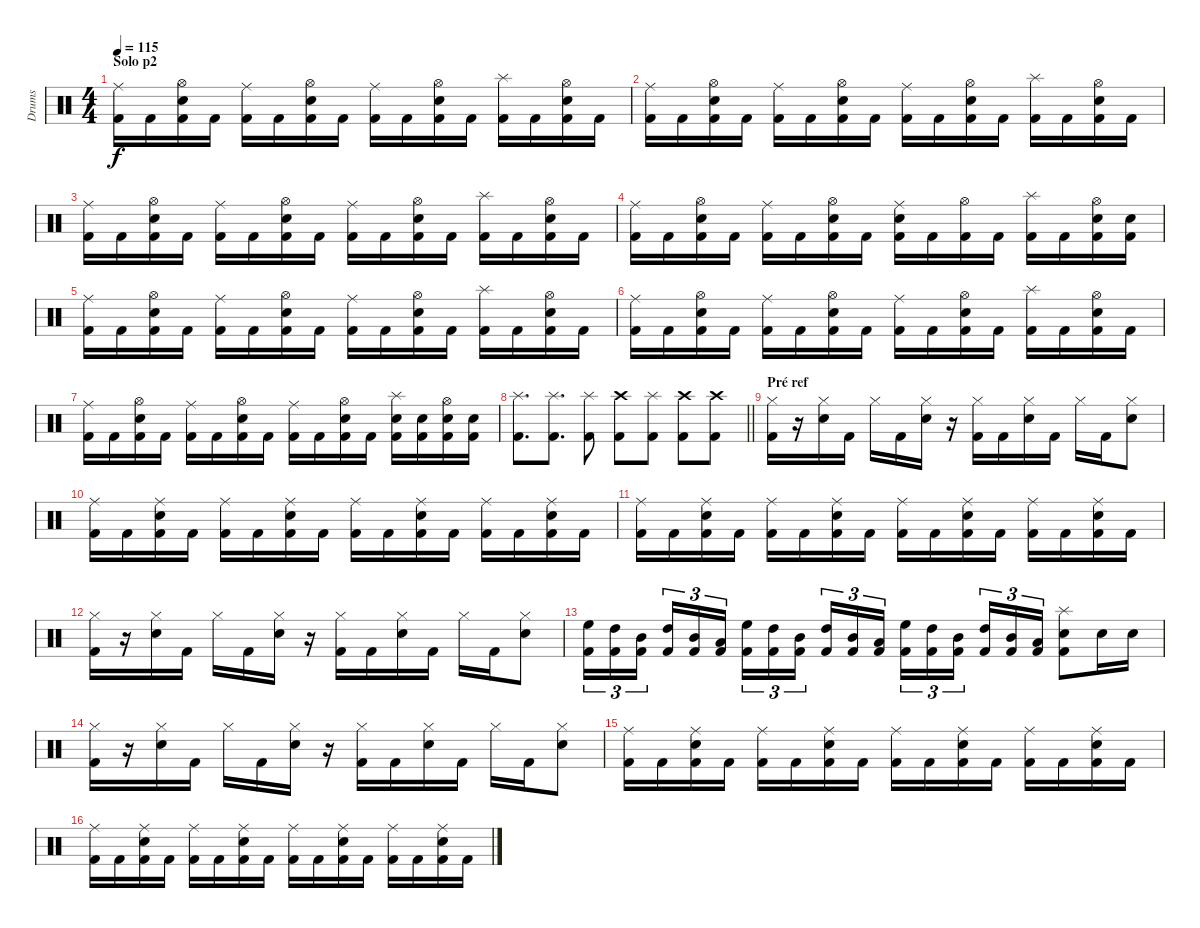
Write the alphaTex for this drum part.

\track ("Drums" "Drums") {instrument percussion}
\staff {score}
\articulation defaults
\ts (4 4)
\section ("" "Solo p2")
\tempo 115
\clef neutral
\ks c
("Ride (middle)" "Kick (hit) 2").16{dy f} "Kick (hit) 2".16 ("Hi-Hat (open)" "Electric Snare (hit)" "Kick (hit) 2").16 "Kick (hit) 2".16 ("Ride (middle)" "Kick (hit) 2").16 "Kick (hit) 2".16 ("Hi-Hat (open)" "Electric Snare (hit)" "Kick (hit) 2").16 "Kick (hit) 2".16 ("Ride (middle)" "Kick (hit) 2").16 "Kick (hit) 2".16 ("Hi-Hat (open)" "Electric Snare (hit)" "Kick (hit) 2").16 "Kick (hit) 2".16 ("Splash (hit)" "Kick (hit) 2").16 "Kick (hit) 2".16 ("Hi-Hat (open)" "Electric Snare (hit)" "Kick (hit) 2").16 "Kick (hit) 2".16 |
("Ride (middle)" "Kick (hit) 2").16 "Kick (hit) 2".16 ("Hi-Hat (open)" "Electric Snare (hit)" "Kick (hit) 2").16 "Kick (hit) 2".16 ("Ride (middle)" "Kick (hit) 2").16 "Kick (hit) 2".16 ("Hi-Hat (open)" "Electric Snare (hit)" "Kick (hit) 2").16 "Kick (hit) 2".16 ("Ride (middle)" "Kick (hit) 2").16 "Kick (hit) 2".16 ("Hi-Hat (open)" "Electric Snare (hit)" "Kick (hit) 2").16 "Kick (hit) 2".16 ("Splash (hit)" "Kick (hit) 2").16 "Kick (hit) 2".16 ("Hi-Hat (open)" "Electric Snare (hit)" "Kick (hit) 2").16 "Kick (hit) 2".16 |
("Ride (middle)" "Kick (hit) 2").16 "Kick (hit) 2".16 ("Hi-Hat (open)" "Electric Snare (hit)" "Kick (hit) 2").16 "Kick (hit) 2".16 ("Ride (middle)" "Kick (hit) 2").16 "Kick (hit) 2".16 ("Hi-Hat (open)" "Electric Snare (hit)" "Kick (hit) 2").16 "Kick (hit) 2".16 ("Ride (middle)" "Kick (hit) 2").16 "Kick (hit) 2".16 ("Hi-Hat (open)" "Electric Snare (hit)" "Kick (hit) 2").16 "Kick (hit) 2".16 ("Splash (hit)" "Kick (hit) 2").16 "Kick (hit) 2".16 ("Hi-Hat (open)" "Electric Snare (hit)" "Kick (hit) 2").16 "Kick (hit) 2".16 |
("Ride (middle)" "Kick (hit) 2").16 "Kick (hit) 2".16 ("Hi-Hat (open)" "Electric Snare (hit)" "Kick (hit) 2").16 "Kick (hit) 2".16 ("Ride (middle)" "Kick (hit) 2").16 "Kick (hit) 2".16 ("Hi-Hat (open)" "Electric Snare (hit)" "Kick (hit) 2").16 "Kick (hit) 2".16 ("Ride (middle)" "Electric Snare (hit)" "Kick (hit) 2").16 "Kick (hit) 2".16 ("Hi-Hat (open)" "Kick (hit) 2").16 "Kick (hit) 2".16 ("Splash (hit)" "Kick (hit) 2").16 "Kick (hit) 2".16 ("Hi-Hat (open)" "Electric Snare (hit)" "Kick (hit) 2").16 ("Electric Snare (hit)" "Kick (hit) 2").16 |
("Ride (middle)" "Kick (hit) 2").16 "Kick (hit) 2".16 ("Hi-Hat (open)" "Electric Snare (hit)" "Kick (hit) 2").16 "Kick (hit) 2".16 ("Ride (middle)" "Kick (hit) 2").16 "Kick (hit) 2".16 ("Hi-Hat (open)" "Electric Snare (hit)" "Kick (hit) 2").16 "Kick (hit) 2".16 ("Ride (middle)" "Kick (hit) 2").16 "Kick (hit) 2".16 ("Hi-Hat (open)" "Electric Snare (hit)" "Kick (hit) 2").16 "Kick (hit) 2".16 ("Splash (hit)" "Kick (hit) 2").16 "Kick (hit) 2".16 ("Hi-Hat (open)" "Electric Snare (hit)" "Kick (hit) 2").16 "Kick (hit) 2".16 |
("Ride (middle)" "Kick (hit) 2").16 "Kick (hit) 2".16 ("Hi-Hat (open)" "Electric Snare (hit)" "Kick (hit) 2").16 "Kick (hit) 2".16 ("Ride (middle)" "Kick (hit) 2").16 "Kick (hit) 2".16 ("Hi-Hat (open)" "Electric Snare (hit)" "Kick (hit) 2").16 "Kick (hit) 2".16 ("Ride (middle)" "Kick (hit) 2").16 "Kick (hit) 2".16 ("Hi-Hat (open)" "Electric Snare (hit)" "Kick (hit) 2").16 "Kick (hit) 2".16 ("Splash (hit)" "Kick (hit) 2").16 "Kick (hit) 2".16 ("Hi-Hat (open)" "Electric Snare (hit)" "Kick (hit) 2").16 "Kick (hit) 2".16 |
("Ride (middle)" "Kick (hit) 2").16 "Kick (hit) 2".16 ("Hi-Hat (open)" "Electric Snare (hit)" "Kick (hit) 2").16 "Kick (hit) 2".16 ("Ride (middle)" "Kick (hit) 2").16 "Kick (hit) 2".16 ("Hi-Hat (open)" "Electric Snare (hit)" "Kick (hit) 2").16 "Kick (hit) 2".16 ("Ride (middle)" "Kick (hit) 2").16 "Kick (hit) 2".16 ("Hi-Hat (open)" "Electric Snare (hit)" "Kick (hit) 2").16 "Kick (hit) 2".16 ("Splash (hit)" "Electric Snare (hit)" "Kick (hit) 2").16 ("Electric Snare (hit)" "Kick (hit) 2").16 ("Hi-Hat (open)" "Electric Snare (hit)" "Kick (hit) 2").16 ("Electric Snare (hit)" "Kick (hit) 2").16 |
\barLineRight lightlight
("Splash (hit)" "Kick (hit) 2").8{d} ("Splash (hit)" "Kick (hit) 2").8{d} ("Splash (hit)" "Kick (hit) 2").8 ("Crash high (hit)" "Kick (hit) 2").8 ("Splash (hit)" "Kick (hit) 2").8 ("Crash high (hit)" "Kick (hit) 2").8 ("Crash high (hit)" "Kick (hit) 2").8 |
\section ("" "Pré ref")
("Hi-Hat (closed)" "Kick (hit) 2").16 r.16 ("Hi-Hat (closed)" "Electric Snare (hit)").16 "Kick (hit) 2".16 "Hi-Hat (closed)".16 "Kick (hit) 2".16 ("Hi-Hat (closed)" "Electric Snare (hit)").16 r.16 ("Hi-Hat (closed)" "Kick (hit) 2").16 "Kick (hit) 2".16 ("Hi-Hat (closed)" "Electric Snare (hit)").16 "Kick (hit) 2".16 "Hi-Hat (closed)".16 "Kick (hit) 2".16 ("Hi-Hat (closed)" "Electric Snare (hit)").8 |
("Ride (middle)" "Kick (hit) 2").16 "Kick (hit) 2".16 ("Ride (middle)" "Electric Snare (hit)" "Kick (hit) 2").16 "Kick (hit) 2".16 ("Ride (middle)" "Kick (hit) 2").16 "Kick (hit) 2".16 ("Ride (middle)" "Electric Snare (hit)" "Kick (hit) 2").16 "Kick (hit) 2".16 ("Ride (middle)" "Kick (hit) 2").16 "Kick (hit) 2".16 ("Ride (middle)" "Electric Snare (hit)" "Kick (hit) 2").16 "Kick (hit) 2".16 ("Ride (middle)" "Kick (hit) 2").16 "Kick (hit) 2".16 ("Ride (middle)" "Electric Snare (hit)" "Kick (hit) 2").16 "Kick (hit) 2".16 |
("Ride (middle)" "Kick (hit) 2").16 "Kick (hit) 2".16 ("Ride (middle)" "Electric Snare (hit)" "Kick (hit) 2").16 "Kick (hit) 2".16 ("Ride (middle)" "Kick (hit) 2").16 "Kick (hit) 2".16 ("Ride (middle)" "Electric Snare (hit)" "Kick (hit) 2").16 "Kick (hit) 2".16 ("Ride (middle)" "Kick (hit) 2").16 "Kick (hit) 2".16 ("Ride (middle)" "Electric Snare (hit)" "Kick (hit) 2").16 "Kick (hit) 2".16 ("Ride (middle)" "Kick (hit) 2").16 "Kick (hit) 2".16 ("Ride (middle)" "Electric Snare (hit)" "Kick (hit) 2").16 "Kick (hit) 2".16 |
("Hi-Hat (closed)" "Kick (hit) 2").16 r.16 ("Hi-Hat (closed)" "Electric Snare (hit)").16 "Kick (hit) 2".16 "Hi-Hat (closed)".16 "Kick (hit) 2".16 ("Hi-Hat (closed)" "Electric Snare (hit)").16 r.16 ("Hi-Hat (closed)" "Kick (hit) 2").16 "Kick (hit) 2".16 ("Hi-Hat (closed)" "Electric Snare (hit)").16 "Kick (hit) 2".16 "Hi-Hat (closed)".16 "Kick (hit) 2".16 ("Hi-Hat (closed)" "Electric Snare (hit)").8 |
("High Floor Tom (hit)" "Kick (hit) 2").16{tu (3 2)} ("High Tom (hit)" "Kick (hit) 2").16{tu (3 2)} ("Mid Tom (hit)" "Kick (hit) 2").16{tu (3 2) beam splitsecondary} ("High Tom (hit)" "Kick (hit) 2").16{tu (3 2)} ("Mid Tom (hit)" "Kick (hit) 2").16{tu (3 2)} ("Low Tom (hit)" "Kick (hit) 2").16{tu (3 2)} ("High Floor Tom (hit)" "Kick (hit) 2").16{tu (3 2)} ("High Tom (hit)" "Kick (hit) 2").16{tu (3 2)} ("Mid Tom (hit)" "Kick (hit) 2").16{tu (3 2) beam splitsecondary} ("High Tom (hit)" "Kick (hit) 2").16{tu (3 2)} ("Mid Tom (hit)" "Kick (hit) 2").16{tu (3 2)} ("Low Tom (hit)" "Kick (hit) 2").16{tu (3 2)} ("High Floor Tom (hit)" "Kick (hit) 2").16{tu (3 2)} ("High Tom (hit)" "Kick (hit) 2").16{tu (3 2)} ("Mid Tom (hit)" "Kick (hit) 2").16{tu (3 2) beam splitsecondary} ("High Tom (hit)" "Kick (hit) 2").16{tu (3 2)} ("Mid Tom (hit)" "Kick (hit) 2").16{tu (3 2)} ("Low Tom (hit)" "Kick (hit) 2").16{tu (3 2)} ("Splash (hit)" "Electric Snare (hit)" "Kick (hit) 2").8 "Electric Snare (hit)".16 "Electric Snare (hit)".16 |
("Hi-Hat (closed)" "Kick (hit) 2").16 r.16 ("Hi-Hat (closed)" "Electric Snare (hit)").16 "Kick (hit) 2".16 "Hi-Hat (closed)".16 "Kick (hit) 2".16 ("Hi-Hat (closed)" "Electric Snare (hit)").16 r.16 ("Hi-Hat (closed)" "Kick (hit) 2").16 "Kick (hit) 2".16 ("Hi-Hat (closed)" "Electric Snare (hit)").16 "Kick (hit) 2".16 "Hi-Hat (closed)".16 "Kick (hit) 2".16 ("Hi-Hat (closed)" "Electric Snare (hit)").8 |
("Ride (middle)" "Kick (hit) 2").16 "Kick (hit) 2".16 ("Ride (middle)" "Electric Snare (hit)" "Kick (hit) 2").16 "Kick (hit) 2".16 ("Ride (middle)" "Kick (hit) 2").16 "Kick (hit) 2".16 ("Ride (middle)" "Electric Snare (hit)" "Kick (hit) 2").16 "Kick (hit) 2".16 ("Ride (middle)" "Kick (hit) 2").16 "Kick (hit) 2".16 ("Ride (middle)" "Electric Snare (hit)" "Kick (hit) 2").16 "Kick (hit) 2".16 ("Ride (middle)" "Kick (hit) 2").16 "Kick (hit) 2".16 ("Ride (middle)" "Electric Snare (hit)" "Kick (hit) 2").16 "Kick (hit) 2".16 |
("Ride (middle)" "Kick (hit) 2").16 "Kick (hit) 2".16 ("Ride (middle)" "Electric Snare (hit)" "Kick (hit) 2").16 "Kick (hit) 2".16 ("Ride (middle)" "Kick (hit) 2").16 "Kick (hit) 2".16 ("Ride (middle)" "Electric Snare (hit)" "Kick (hit) 2").16 "Kick (hit) 2".16 ("Ride (middle)" "Kick (hit) 2").16 "Kick (hit) 2".16 ("Ride (middle)" "Electric Snare (hit)" "Kick (hit) 2").16 "Kick (hit) 2".16 ("Ride (middle)" "Kick (hit) 2").16 "Kick (hit) 2".16 ("Ride (middle)" "Electric Snare (hit)" "Kick (hit) 2").16 "Kick (hit) 2".16
